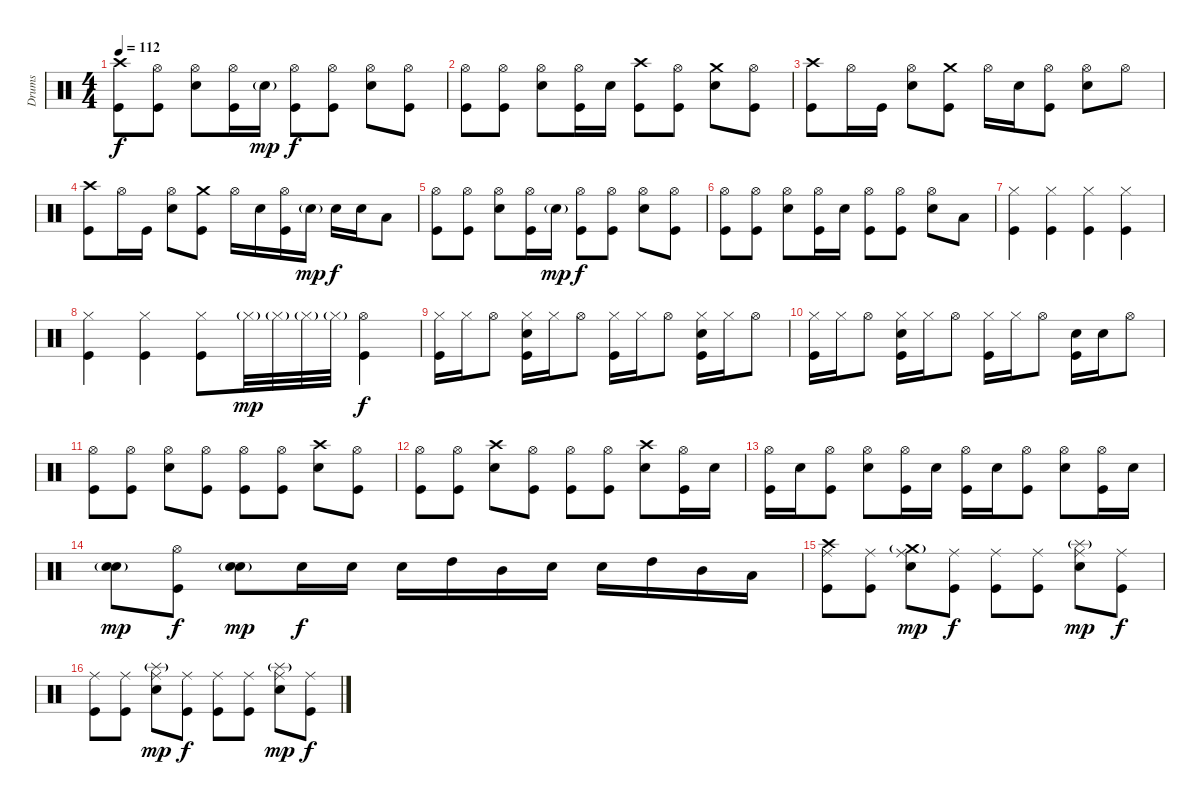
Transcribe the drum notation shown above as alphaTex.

\track ("Drums" "Drums") {instrument percussion}
\staff {score}
\articulation defaults
\ts (4 4)
\tempo 112
\clef neutral
\ks c
("Crash high (hit)" "Kick (hit)").8{dy f} ("Hi-Hat (open)" "Kick (hit)").8 ("Hi-Hat (open)" "Electric Snare (hit)").8 ("Hi-Hat (open)" "Kick (hit)").16 "Electric Snare (hit)"{g}.16{dy mp} ("Hi-Hat (open)" "Kick (hit)").8{dy f} ("Hi-Hat (open)" "Kick (hit)").8 ("Hi-Hat (open)" "Electric Snare (hit)").8 ("Hi-Hat (open)" "Kick (hit)").8 |
("Hi-Hat (open)" "Kick (hit)").8 ("Hi-Hat (open)" "Kick (hit)").8 ("Hi-Hat (open)" "Electric Snare (hit)").8 ("Hi-Hat (open)" "Kick (hit)").16 "Electric Snare (hit)".16 ("Crash high (hit)" "Kick (hit)").8 ("Hi-Hat (open)" "Kick (hit)").8 ("Crash medium (hit)" "Electric Snare (hit)").8 ("Hi-Hat (open)" "Kick (hit)").8 |
("Crash high (hit)" "Kick (hit)").8 "Hi-Hat (open)".16 "Kick (hit)".16 ("Hi-Hat (open)" "Electric Snare (hit)").8 ("Crash medium (hit)" "Kick (hit)").8 "Hi-Hat (open)".16 "Electric Snare (hit)".16 ("Hi-Hat (open)" "Kick (hit)").8 ("Hi-Hat (open)" "Electric Snare (hit)").8 "Hi-Hat (open)".8 |
("Crash high (hit)" "Kick (hit)").8 "Hi-Hat (open)".16 "Kick (hit)".16 ("Hi-Hat (open)" "Electric Snare (hit)").8 ("Crash medium (hit)" "Kick (hit)").8 "Hi-Hat (open)".16 "Electric Snare (hit)".16 ("Hi-Hat (open)" "Kick (hit)").16 "Electric Snare (hit)"{g}.16{dy mp} "Electric Snare (hit)".16{dy f} "Electric Snare (hit)".16 "Low Tom (hit)".8 |
("Hi-Hat (open)" "Kick (hit)").8 ("Hi-Hat (open)" "Kick (hit)").8 ("Hi-Hat (open)" "Electric Snare (hit)").8 ("Hi-Hat (open)" "Kick (hit)").16 "Electric Snare (hit)"{g}.16{dy mp} ("Hi-Hat (open)" "Kick (hit)").8{dy f} ("Hi-Hat (open)" "Kick (hit)").8 ("Hi-Hat (open)" "Electric Snare (hit)").8 ("Hi-Hat (open)" "Kick (hit)").8 |
("Hi-Hat (open)" "Kick (hit)").8 ("Hi-Hat (open)" "Kick (hit)").8 ("Hi-Hat (open)" "Electric Snare (hit)").8 ("Hi-Hat (open)" "Kick (hit)").16 "Electric Snare (hit)".16 ("Hi-Hat (open)" "Kick (hit)").8 ("Hi-Hat (open)" "Kick (hit)").8 ("Hi-Hat (open)" "Electric Snare (hit)").8 "Low Tom (hit)".8 |
("Hi-Hat (closed)" "Kick (hit)").4 ("Hi-Hat (closed)" "Kick (hit)").4 ("Hi-Hat (closed)" "Kick (hit)").4 ("Hi-Hat (closed)" "Kick (hit)").4 |
("Hi-Hat (closed)" "Kick (hit)").4 ("Hi-Hat (closed)" "Kick (hit)").4 ("Hi-Hat (closed)" "Kick (hit)").8 "Hi-Hat (closed)"{g}.32{dy mp} "Hi-Hat (closed)"{g}.32 "Hi-Hat (closed)"{g}.32 "Hi-Hat (closed)"{g}.32 ("Hi-Hat (open)" "Kick (hit)").4{dy f} |
("Hi-Hat (closed)" "Kick (hit)").16 "Hi-Hat (closed)".16 "Hi-Hat (open)".8 ("Hi-Hat (closed)" "Electric Snare (hit)" "Kick (hit)").16 "Hi-Hat (closed)".16 "Hi-Hat (open)".8 ("Hi-Hat (closed)" "Kick (hit)").16 "Hi-Hat (closed)".16 "Hi-Hat (open)".8 ("Hi-Hat (closed)" "Electric Snare (hit)" "Kick (hit)").16 "Hi-Hat (closed)".16 "Hi-Hat (open)".8 |
("Hi-Hat (closed)" "Kick (hit)").16 "Hi-Hat (closed)".16 "Hi-Hat (open)".8 ("Hi-Hat (closed)" "Electric Snare (hit)" "Kick (hit)").16 "Hi-Hat (closed)".16 "Hi-Hat (open)".8 ("Hi-Hat (closed)" "Kick (hit)").16 "Hi-Hat (closed)".16 "Hi-Hat (open)".8 ("Electric Snare (hit)" "Kick (hit)").16 "Electric Snare (hit)".16 "Hi-Hat (open)".8 |
("Hi-Hat (open)" "Kick (hit)").8 ("Hi-Hat (open)" "Kick (hit)").8 ("Hi-Hat (open)" "Electric Snare (hit)").8 ("Hi-Hat (open)" "Kick (hit)").8 ("Hi-Hat (open)" "Kick (hit)").8 ("Hi-Hat (open)" "Kick (hit)").8 ("Crash high (hit)" "Electric Snare (hit)").8 ("Hi-Hat (open)" "Kick (hit)").8 |
("Hi-Hat (open)" "Kick (hit)").8 ("Hi-Hat (open)" "Kick (hit)").8 ("Crash high (hit)" "Electric Snare (hit)").8 ("Hi-Hat (open)" "Kick (hit)").8 ("Hi-Hat (open)" "Kick (hit)").8 ("Hi-Hat (open)" "Kick (hit)").8 ("Crash high (hit)" "Electric Snare (hit)").8 ("Hi-Hat (open)" "Kick (hit)").16 "Electric Snare (hit)".16 |
("Hi-Hat (open)" "Kick (hit)").16 "Electric Snare (hit)".16 ("Hi-Hat (open)" "Kick (hit)").8 ("Hi-Hat (open)" "Electric Snare (hit)").8 ("Hi-Hat (open)" "Kick (hit)").16 "Electric Snare (hit)".16 ("Hi-Hat (open)" "Kick (hit)").16 "Electric Snare (hit)".16 ("Hi-Hat (open)" "Kick (hit)").8 ("Hi-Hat (open)" "Electric Snare (hit)").8 ("Hi-Hat (open)" "Kick (hit)").16 "Electric Snare (hit)".16 |
("Electric Snare (hit)"{g} "Electric Snare (hit)").8{bd 480 dy mp} ("Hi-Hat (open)" "Kick (hit)").8{dy f} ("Electric Snare (hit)"{g} "Electric Snare (hit)").8{bd 480 dy mp} "Electric Snare (hit)".16{dy f} "Electric Snare (hit)".16 "Electric Snare (hit)".16 "High Tom (hit)".16 "Mid Tom (hit)".16 "Electric Snare (hit)".16 "Electric Snare (hit)".16 "High Tom (hit)".16 "Mid Tom (hit)".16 "Low Tom (hit)".16 |
("Crash high (hit)" "Ride (middle)" "Kick (hit)").8 ("Ride (middle)" "Kick (hit)").8 ("Crash medium (hit)"{g} "Ride (middle)" "Electric Snare (hit)").8{dy mp} ("Ride (middle)" "Kick (hit)").8{dy f} ("Ride (middle)" "Kick (hit)").8 ("Ride (middle)" "Kick (hit)").8 ("Splash (hit)"{g} "Ride (middle)" "Electric Snare (hit)").8{dy mp} ("Ride (middle)" "Kick (hit)").8{dy f} |
("Ride (middle)" "Kick (hit)").8 ("Ride (middle)" "Kick (hit)").8 ("Splash (hit)"{g} "Ride (middle)" "Electric Snare (hit)").8{dy mp} ("Ride (middle)" "Kick (hit)").8{dy f} ("Ride (middle)" "Kick (hit)").8 ("Ride (middle)" "Kick (hit)").8 ("Splash (hit)"{g} "Ride (middle)" "Electric Snare (hit)").8{dy mp} ("Ride (middle)" "Kick (hit)").8{dy f}
